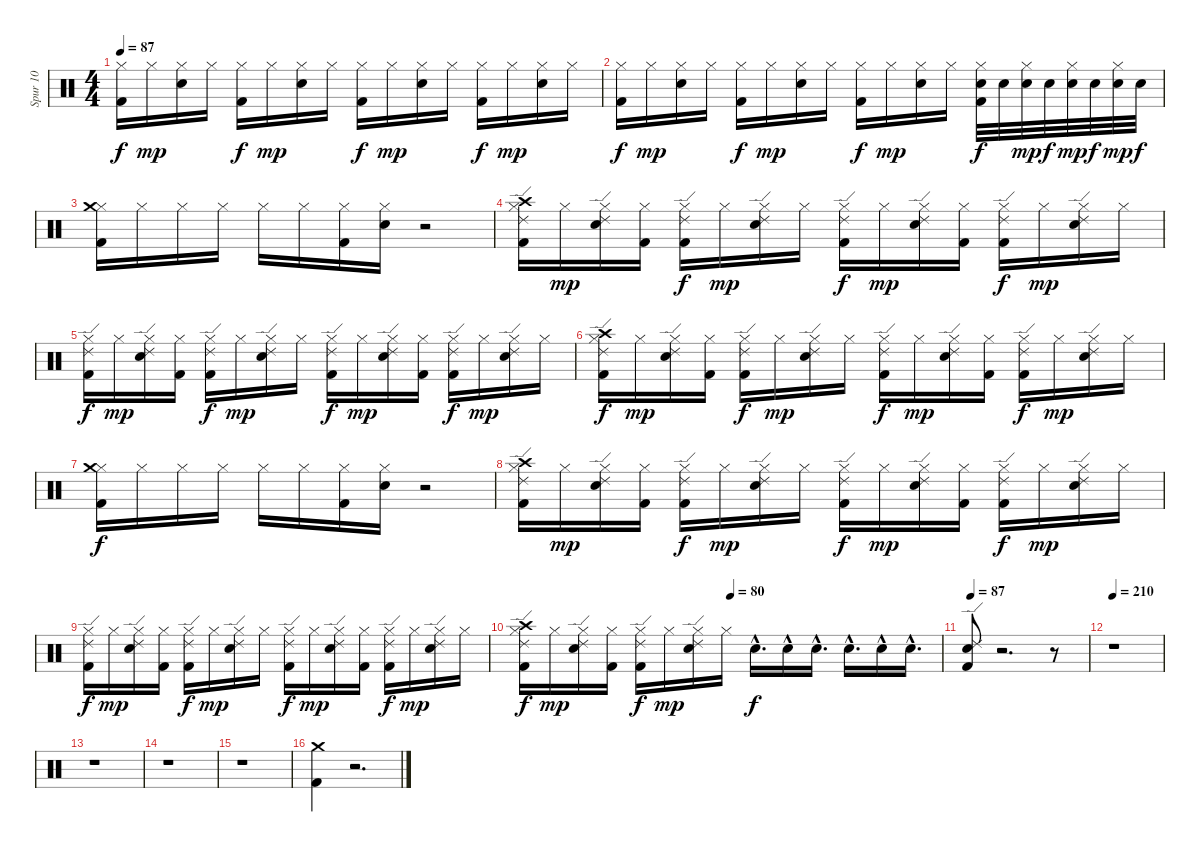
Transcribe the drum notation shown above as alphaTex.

\track ("Spur 10" "Spur 10") {instrument percussion}
\staff {score}
\articulation defaults
\ts (4 4)
\tempo 87
\clef neutral
\ks c
("Hi-Hat (closed)" "Kick (hit) 2").16{dy f} "Hi-Hat (closed)".16{dy mp} ("Hi-Hat (closed)" "Electric Snare (hit)").16 "Hi-Hat (closed)".16 ("Hi-Hat (closed)" "Kick (hit) 2").16{dy f} "Hi-Hat (closed)".16{dy mp} ("Hi-Hat (closed)" "Electric Snare (hit)").16 "Hi-Hat (closed)".16 ("Hi-Hat (closed)" "Kick (hit) 2").16{dy f} "Hi-Hat (closed)".16{dy mp} ("Hi-Hat (closed)" "Electric Snare (hit)").16 "Hi-Hat (closed)".16 ("Hi-Hat (closed)" "Kick (hit) 2").16{dy f} "Hi-Hat (closed)".16{dy mp} ("Hi-Hat (closed)" "Electric Snare (hit)").16 "Hi-Hat (closed)".16 |
("Hi-Hat (closed)" "Kick (hit) 2").16{dy f} "Hi-Hat (closed)".16{dy mp} ("Hi-Hat (closed)" "Electric Snare (hit)").16 "Hi-Hat (closed)".16 ("Hi-Hat (closed)" "Kick (hit) 2").16{dy f} "Hi-Hat (closed)".16{dy mp} ("Hi-Hat (closed)" "Electric Snare (hit)").16 "Hi-Hat (closed)".16 ("Hi-Hat (closed)" "Kick (hit) 2").16{dy f} "Hi-Hat (closed)".16{dy mp} ("Hi-Hat (closed)" "Electric Snare (hit)").16 "Hi-Hat (closed)".16 ("Electric Snare (hit)" "Hi-Hat (closed)" "Kick (hit) 2").32{dy f} "Electric Snare (hit)".32 ("Electric Snare (hit)" "Hi-Hat (closed)").32{dy mp} "Electric Snare (hit)".32{dy f} ("Hi-Hat (closed)" "Electric Snare (hit)").32{dy mp} "Electric Snare (hit)".32{dy f} ("Electric Snare (hit)" "Hi-Hat (closed)").32{dy mp} "Electric Snare (hit)".32{dy f} |
("Hi-Hat (closed)" "Crash medium (hit)" "Kick (hit) 2").16 "Hi-Hat (closed)".16 "Hi-Hat (closed)".16 "Hi-Hat (closed)".16 "Hi-Hat (closed)".16 "Hi-Hat (closed)".16 ("Hi-Hat (closed)" "Kick (hit) 2").16 ("Hi-Hat (closed)" "Electric Snare (hit)").16 r.2 |
("Hi-Hat (closed)" "Crash high (hit)" "Ride (edge) 2" "Kick (hit) 2").16 "Hi-Hat (closed)".16{dy mp} ("Hi-Hat (closed)" "Ride (edge) 2" "Electric Snare (hit)").16 ("Kick (hit) 2" "Hi-Hat (closed)").16 ("Hi-Hat (closed)" "Ride (edge) 2" "Kick (hit) 2").16{dy f} "Hi-Hat (closed)".16{dy mp} ("Hi-Hat (closed)" "Electric Snare (hit)" "Ride (edge) 2").16 "Hi-Hat (closed)".16 ("Hi-Hat (closed)" "Ride (edge) 2" "Kick (hit) 2").16{dy f} "Hi-Hat (closed)".16{dy mp} ("Hi-Hat (closed)" "Ride (edge) 2" "Electric Snare (hit)").16 ("Kick (hit) 2" "Hi-Hat (closed)").16 ("Hi-Hat (closed)" "Ride (edge) 2" "Kick (hit) 2").16{dy f} "Hi-Hat (closed)".16{dy mp} ("Hi-Hat (closed)" "Ride (edge) 2" "Electric Snare (hit)").16 "Hi-Hat (closed)".16 |
("Hi-Hat (closed)" "Ride (edge) 2" "Kick (hit) 2").16{dy f} "Hi-Hat (closed)".16{dy mp} ("Hi-Hat (closed)" "Ride (edge) 2" "Electric Snare (hit)").16 ("Kick (hit) 2" "Hi-Hat (closed)").16 ("Hi-Hat (closed)" "Ride (edge) 2" "Kick (hit) 2").16{dy f} "Hi-Hat (closed)".16{dy mp} ("Hi-Hat (closed)" "Electric Snare (hit)" "Ride (edge) 2").16 "Hi-Hat (closed)".16 ("Hi-Hat (closed)" "Ride (edge) 2" "Kick (hit) 2").16{dy f} "Hi-Hat (closed)".16{dy mp} ("Hi-Hat (closed)" "Ride (edge) 2" "Electric Snare (hit)").16 ("Kick (hit) 2" "Hi-Hat (closed)").16 ("Hi-Hat (closed)" "Ride (edge) 2" "Kick (hit) 2").16{dy f} "Hi-Hat (closed)".16{dy mp} ("Hi-Hat (closed)" "Ride (edge) 2" "Electric Snare (hit)").16 "Hi-Hat (closed)".16 |
("Hi-Hat (closed)" "Crash high (hit)" "Ride (edge) 2" "Kick (hit) 2").16{dy f} "Hi-Hat (closed)".16{dy mp} ("Hi-Hat (closed)" "Ride (edge) 2" "Electric Snare (hit)").16 ("Kick (hit) 2" "Hi-Hat (closed)").16 ("Hi-Hat (closed)" "Ride (edge) 2" "Kick (hit) 2").16{dy f} "Hi-Hat (closed)".16{dy mp} ("Hi-Hat (closed)" "Electric Snare (hit)" "Ride (edge) 2").16 "Hi-Hat (closed)".16 ("Hi-Hat (closed)" "Ride (edge) 2" "Kick (hit) 2").16{dy f} "Hi-Hat (closed)".16{dy mp} ("Hi-Hat (closed)" "Ride (edge) 2" "Electric Snare (hit)").16 ("Kick (hit) 2" "Hi-Hat (closed)").16 ("Hi-Hat (closed)" "Ride (edge) 2" "Kick (hit) 2").16{dy f} "Hi-Hat (closed)".16{dy mp} ("Hi-Hat (closed)" "Ride (edge) 2" "Electric Snare (hit)").16 "Hi-Hat (closed)".16 |
("Hi-Hat (closed)" "Crash medium (hit)" "Kick (hit) 2").16{dy f} "Hi-Hat (closed)".16 "Hi-Hat (closed)".16 "Hi-Hat (closed)".16 "Hi-Hat (closed)".16 "Hi-Hat (closed)".16 ("Hi-Hat (closed)" "Kick (hit) 2").16 ("Hi-Hat (closed)" "Electric Snare (hit)").16 r.2 |
("Hi-Hat (closed)" "Crash high (hit)" "Ride (edge) 2" "Kick (hit) 2").16 "Hi-Hat (closed)".16{dy mp} ("Hi-Hat (closed)" "Ride (edge) 2" "Electric Snare (hit)").16 ("Kick (hit) 2" "Hi-Hat (closed)").16 ("Hi-Hat (closed)" "Ride (edge) 2" "Kick (hit) 2").16{dy f} "Hi-Hat (closed)".16{dy mp} ("Hi-Hat (closed)" "Electric Snare (hit)" "Ride (edge) 2").16 "Hi-Hat (closed)".16 ("Hi-Hat (closed)" "Ride (edge) 2" "Kick (hit) 2").16{dy f} "Hi-Hat (closed)".16{dy mp} ("Hi-Hat (closed)" "Ride (edge) 2" "Electric Snare (hit)").16 ("Kick (hit) 2" "Hi-Hat (closed)").16 ("Hi-Hat (closed)" "Ride (edge) 2" "Kick (hit) 2").16{dy f} "Hi-Hat (closed)".16{dy mp} ("Hi-Hat (closed)" "Ride (edge) 2" "Electric Snare (hit)").16 "Hi-Hat (closed)".16 |
("Hi-Hat (closed)" "Ride (edge) 2" "Kick (hit) 2").16{dy f} "Hi-Hat (closed)".16{dy mp} ("Hi-Hat (closed)" "Ride (edge) 2" "Electric Snare (hit)").16 ("Kick (hit) 2" "Hi-Hat (closed)").16 ("Hi-Hat (closed)" "Ride (edge) 2" "Kick (hit) 2").16{dy f} "Hi-Hat (closed)".16{dy mp} ("Hi-Hat (closed)" "Electric Snare (hit)" "Ride (edge) 2").16 "Hi-Hat (closed)".16 ("Hi-Hat (closed)" "Ride (edge) 2" "Kick (hit) 2").16{dy f} "Hi-Hat (closed)".16{dy mp} ("Hi-Hat (closed)" "Ride (edge) 2" "Electric Snare (hit)").16 ("Kick (hit) 2" "Hi-Hat (closed)").16 ("Hi-Hat (closed)" "Ride (edge) 2" "Kick (hit) 2").16{dy f} "Hi-Hat (closed)".16{dy mp} ("Hi-Hat (closed)" "Ride (edge) 2" "Electric Snare (hit)").16 "Hi-Hat (closed)".16 |
\tempo (80 0.5)
("Hi-Hat (closed)" "Crash high (hit)" "Ride (edge) 2" "Kick (hit) 2").16{dy f} "Hi-Hat (closed)".16{dy mp} ("Hi-Hat (closed)" "Ride (edge) 2" "Electric Snare (hit)").16 ("Kick (hit) 2" "Hi-Hat (closed)").16 ("Hi-Hat (closed)" "Ride (edge) 2" "Kick (hit) 2").16{dy f} "Hi-Hat (closed)".16{dy mp} ("Hi-Hat (closed)" "Electric Snare (hit)" "Ride (edge) 2").16 "Hi-Hat (closed)".16 "Electric Snare (hit)"{hac}.16{d dy f} "Electric Snare (hit)"{hac}.16 "Electric Snare (hit)"{hac}.16{d} "Snare (hit) 2"{hac}.16{d} "Snare (hit) 2"{hac}.16 "Snare (hit) 2"{hac}.16{d} |
\tempo 87
("Electric Snare (hit)" "Ride (edge) 2" "Kick (hit) 2").8 r.2{d} r.8 |
\tempo 210
r.1 |
r.1 |
r.1 |
r.1 |
("Crash medium (hit)" "Kick (hit) 2").4 r.2{d}
